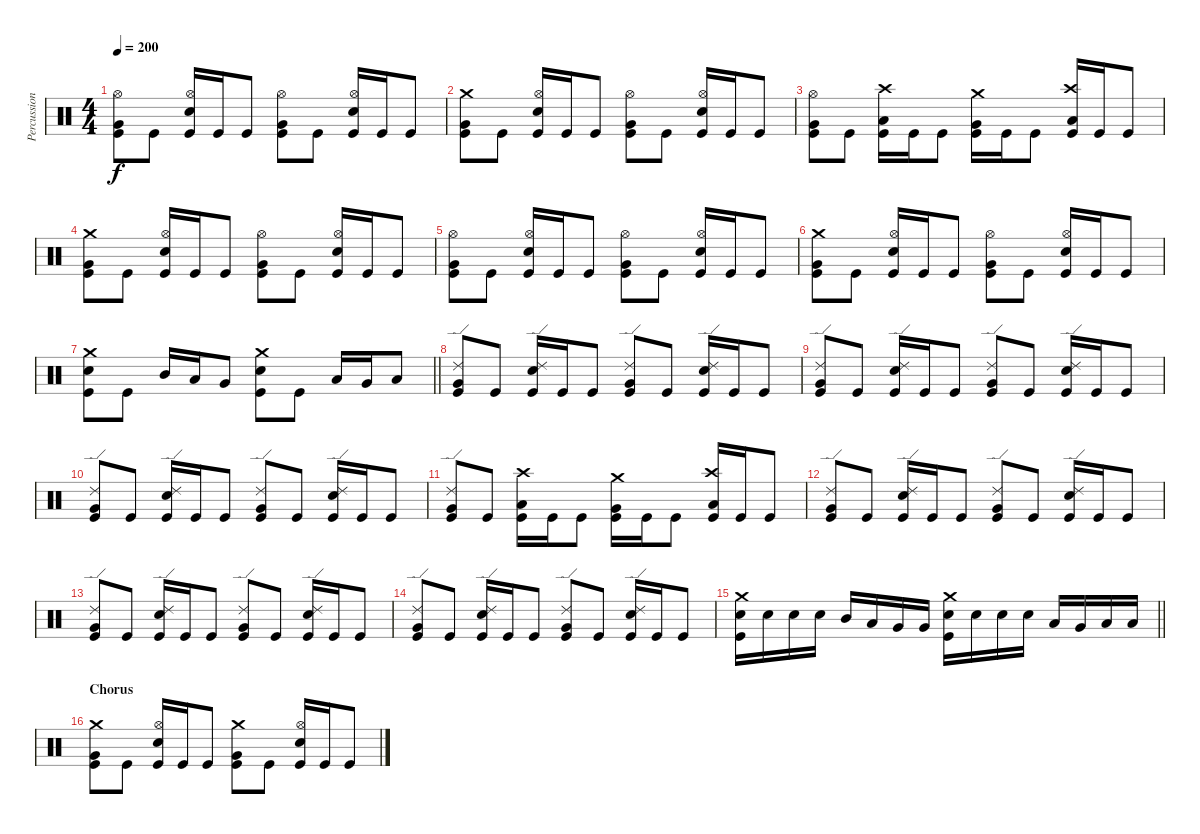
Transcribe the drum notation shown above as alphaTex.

\track ("Percussion" "Percussion") {instrument percussion}
\staff {score}
\articulation defaults
\ts (4 4)
\tempo 200
\clef neutral
\ks c
("Kick (hit)" "Very Low Tom (hit)" "Hi-Hat (open)").8{dy f} "Kick (hit)".8 ("Kick (hit)" "Snare (hit) 2" "Hi-Hat (open)").16 "Kick (hit)".16 "Kick (hit)".8 ("Kick (hit)" "Very Low Tom (hit)" "Hi-Hat (open)").8 "Kick (hit)".8 ("Kick (hit)" "Snare (hit) 2" "Hi-Hat (open)").16 "Kick (hit)".16 "Kick (hit)".8 |
("Kick (hit)" "Very Low Tom (hit)" "Crash medium (hit)").8 "Kick (hit)".8 ("Kick (hit)" "Snare (hit) 2" "Hi-Hat (open)").16 "Kick (hit)".16 "Kick (hit)".8 ("Kick (hit)" "Very Low Tom (hit)" "Hi-Hat (open)").8 "Kick (hit)".8 ("Kick (hit)" "Snare (hit) 2" "Hi-Hat (open)").16 "Kick (hit)".16 "Kick (hit)".8 |
("Kick (hit)" "Very Low Tom (hit)" "Hi-Hat (open)").8 "Kick (hit)".8 ("Low Tom (hit)" "Crash high (hit)" "Kick (hit)").16 "Kick (hit)".16 "Kick (hit)".8 ("Very Low Tom (hit)" "Crash medium (hit)" "Kick (hit)").16 "Kick (hit)".16 "Kick (hit)".8 ("Low Floor Tom (hit)" "Crash high (hit)" "Kick (hit)").16 "Kick (hit)".16 "Kick (hit)".8 |
("Kick (hit)" "Very Low Tom (hit)" "Crash medium (hit)").8 "Kick (hit)".8 ("Kick (hit)" "Snare (hit) 2" "Hi-Hat (open)").16 "Kick (hit)".16 "Kick (hit)".8 ("Kick (hit)" "Very Low Tom (hit)" "Hi-Hat (open)").8 "Kick (hit)".8 ("Kick (hit)" "Snare (hit) 2" "Hi-Hat (open)").16 "Kick (hit)".16 "Kick (hit)".8 |
("Kick (hit)" "Very Low Tom (hit)" "Hi-Hat (open)").8 "Kick (hit)".8 ("Kick (hit)" "Snare (hit) 2" "Hi-Hat (open)").16 "Kick (hit)".16 "Kick (hit)".8 ("Kick (hit)" "Very Low Tom (hit)" "Hi-Hat (open)").8 "Kick (hit)".8 ("Kick (hit)" "Snare (hit) 2" "Hi-Hat (open)").16 "Kick (hit)".16 "Kick (hit)".8 |
("Kick (hit)" "Very Low Tom (hit)" "Crash medium (hit)").8 "Kick (hit)".8 ("Kick (hit)" "Snare (hit) 2" "Hi-Hat (open)").16 "Kick (hit)".16 "Kick (hit)".8 ("Kick (hit)" "Very Low Tom (hit)" "Hi-Hat (open)").8 "Kick (hit)".8 ("Kick (hit)" "Snare (hit) 2" "Hi-Hat (open)").16 "Kick (hit)".16 "Kick (hit)".8 |
\barLineRight lightlight
("Snare (hit) 2" "Crash medium (hit)" "Kick (hit)").8 "Kick (hit)".8 "Mid Tom (hit)".16 "Low Tom (hit)".16 "Very Low Tom (hit)".8 ("Snare (hit) 2" "Crash medium (hit)" "Kick (hit)").8 "Kick (hit)".8 "Low Tom (hit)".16 "Very Low Tom (hit)".16 "Low Floor Tom (hit)".8 |
("Kick (hit)" "Very Low Tom (hit)" "Ride (edge) 2").8 "Kick (hit)".8 ("Kick (hit)" "Snare (hit) 2" "Ride (edge) 2").16 "Kick (hit)".16 "Kick (hit)".8 ("Kick (hit)" "Very Low Tom (hit)" "Ride (edge) 2").8 "Kick (hit)".8 ("Kick (hit)" "Snare (hit) 2" "Ride (edge) 2").16 "Kick (hit)".16 "Kick (hit)".8 |
("Kick (hit)" "Very Low Tom (hit)" "Ride (edge) 2").8 "Kick (hit)".8 ("Kick (hit)" "Snare (hit) 2" "Ride (edge) 2").16 "Kick (hit)".16 "Kick (hit)".8 ("Kick (hit)" "Very Low Tom (hit)" "Ride (edge) 2").8 "Kick (hit)".8 ("Kick (hit)" "Snare (hit) 2" "Ride (edge) 2").16 "Kick (hit)".16 "Kick (hit)".8 |
("Kick (hit)" "Very Low Tom (hit)" "Ride (edge) 2").8 "Kick (hit)".8 ("Kick (hit)" "Snare (hit) 2" "Ride (edge) 2").16 "Kick (hit)".16 "Kick (hit)".8 ("Kick (hit)" "Very Low Tom (hit)" "Ride (edge) 2").8 "Kick (hit)".8 ("Kick (hit)" "Snare (hit) 2" "Ride (edge) 2").16 "Kick (hit)".16 "Kick (hit)".8 |
("Kick (hit)" "Very Low Tom (hit)" "Ride (edge) 2").8 "Kick (hit)".8 ("Low Tom (hit)" "Crash high (hit)" "Kick (hit)").16 "Kick (hit)".16 "Kick (hit)".8 ("Very Low Tom (hit)" "Crash medium (hit)" "Kick (hit)").16 "Kick (hit)".16 "Kick (hit)".8 ("Low Floor Tom (hit)" "Crash high (hit)" "Kick (hit)").16 "Kick (hit)".16 "Kick (hit)".8 |
("Kick (hit)" "Very Low Tom (hit)" "Ride (edge) 2").8 "Kick (hit)".8 ("Kick (hit)" "Snare (hit) 2" "Ride (edge) 2").16 "Kick (hit)".16 "Kick (hit)".8 ("Kick (hit)" "Very Low Tom (hit)" "Ride (edge) 2").8 "Kick (hit)".8 ("Kick (hit)" "Snare (hit) 2" "Ride (edge) 2").16 "Kick (hit)".16 "Kick (hit)".8 |
("Kick (hit)" "Very Low Tom (hit)" "Ride (edge) 2").8 "Kick (hit)".8 ("Kick (hit)" "Snare (hit) 2" "Ride (edge) 2").16 "Kick (hit)".16 "Kick (hit)".8 ("Kick (hit)" "Very Low Tom (hit)" "Ride (edge) 2").8 "Kick (hit)".8 ("Kick (hit)" "Snare (hit) 2" "Ride (edge) 2").16 "Kick (hit)".16 "Kick (hit)".8 |
("Kick (hit)" "Very Low Tom (hit)" "Ride (edge) 2").8 "Kick (hit)".8 ("Kick (hit)" "Snare (hit) 2" "Ride (edge) 2").16 "Kick (hit)".16 "Kick (hit)".8 ("Kick (hit)" "Very Low Tom (hit)" "Ride (edge) 2").8 "Kick (hit)".8 ("Kick (hit)" "Snare (hit) 2" "Ride (edge) 2").16 "Kick (hit)".16 "Kick (hit)".8 |
\barLineRight lightlight
("Snare (hit) 2" "Crash medium (hit)" "Kick (hit)").16 "Snare (hit) 2".16 "Snare (hit) 2".16 "Snare (hit) 2".16 "Mid Tom (hit)".16 "Low Tom (hit)".16 "Very Low Tom (hit)".16 "Very Low Tom (hit)".16 ("Snare (hit) 2" "Crash medium (hit)" "Kick (hit)").16 "Snare (hit) 2".16 "Snare (hit) 2".16 "Snare (hit) 2".16 "Low Tom (hit)".16 "Very Low Tom (hit)".16 "Low Floor Tom (hit)".16 "Low Floor Tom (hit)".16 |
\section ("" "Chorus")
("Kick (hit)" "Very Low Tom (hit)" "Crash medium (hit)").8 "Kick (hit)".8 ("Kick (hit)" "Snare (hit) 2" "Hi-Hat (open)").16 "Kick (hit)".16 "Kick (hit)".8 ("Kick (hit)" "Very Low Tom (hit)" "Crash medium (hit)").8 "Kick (hit)".8 ("Kick (hit)" "Snare (hit) 2" "Hi-Hat (open)").16 "Kick (hit)".16 "Kick (hit)".8
